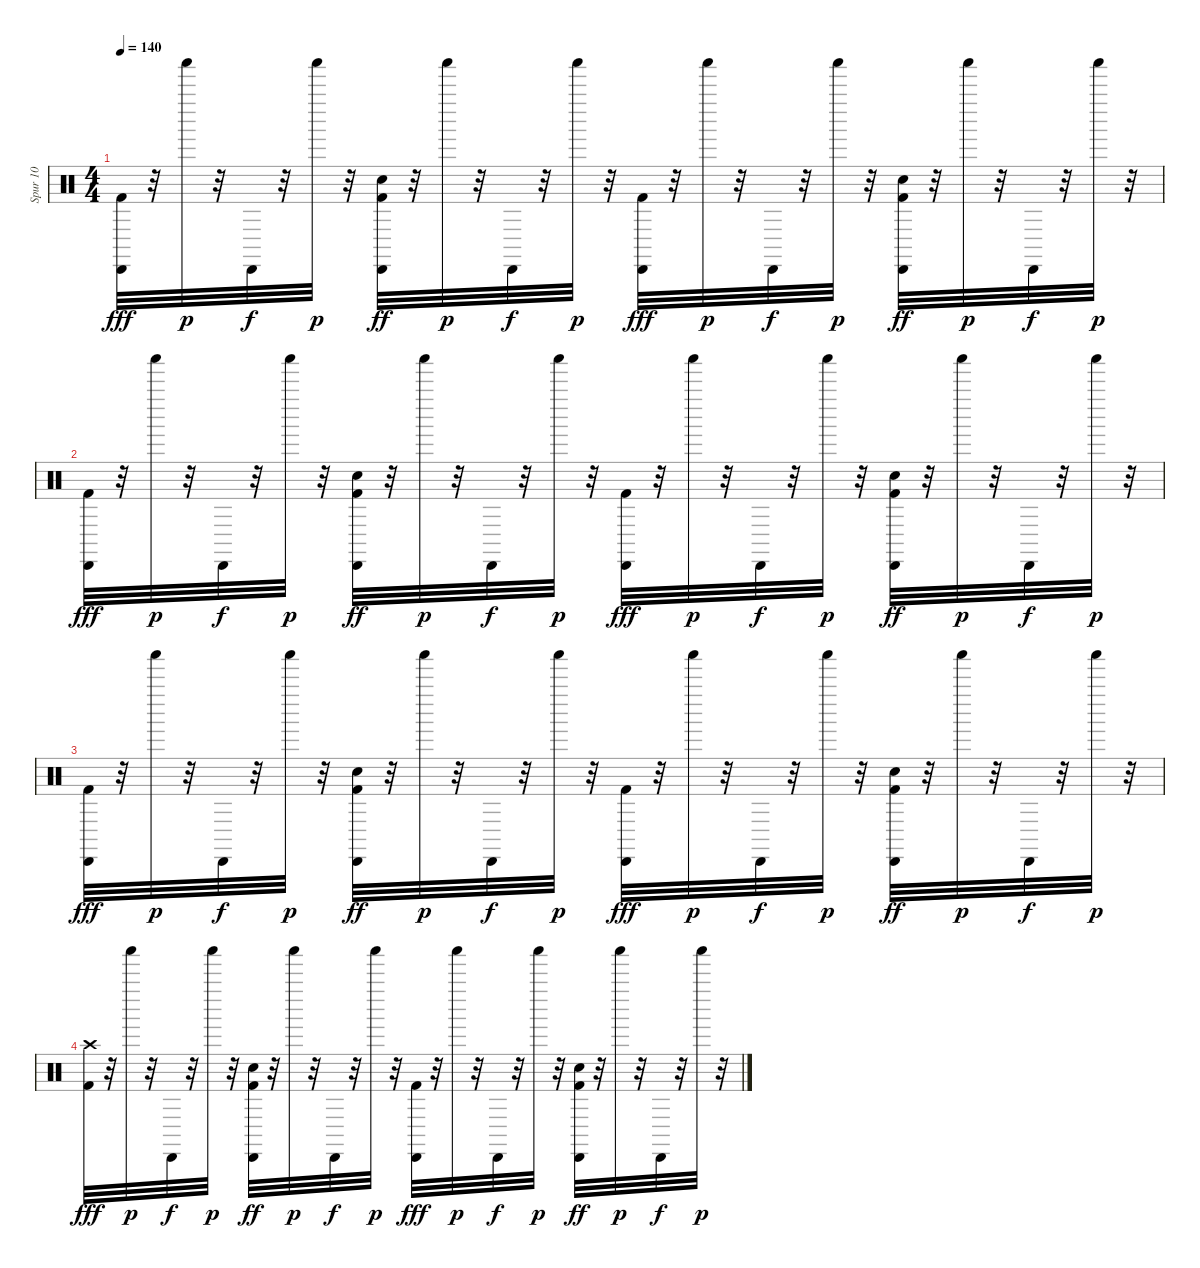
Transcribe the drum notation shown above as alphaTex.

\track ("Spur 10" "Spur 10") {instrument percussion}
\staff {score}
\articulation defaults
\ts (4 4)
\tempo 140
\clef neutral
\ks c
("Cabasa (hit)" "Kick (hit) 2").32{dy fff} r.32 "Shaker (hit)".32{dy p} r.32 "Cabasa (hit)".32{dy f} r.32 "Shaker (hit)".32{dy p} r.32 ("Snare (hit) 2" "Cabasa (hit)" "Kick (hit) 2").32{dy ff} r.32 "Shaker (hit)".32{dy p} r.32 "Cabasa (hit)".32{dy f} r.32 "Shaker (hit)".32{dy p} r.32 ("Cabasa (hit)" "Kick (hit) 2").32{dy fff} r.32 "Shaker (hit)".32{dy p} r.32 "Cabasa (hit)".32{dy f} r.32 "Shaker (hit)".32{dy p} r.32 ("Snare (hit) 2" "Cabasa (hit)" "Kick (hit) 2").32{dy ff} r.32 "Shaker (hit)".32{dy p} r.32 "Cabasa (hit)".32{dy f} r.32 "Shaker (hit)".32{dy p} r.32 |
("Cabasa (hit)" "Kick (hit) 2").32{dy fff} r.32 "Shaker (hit)".32{dy p} r.32 "Cabasa (hit)".32{dy f} r.32 "Shaker (hit)".32{dy p} r.32 ("Snare (hit) 2" "Cabasa (hit)" "Kick (hit) 2").32{dy ff} r.32 "Shaker (hit)".32{dy p} r.32 "Cabasa (hit)".32{dy f} r.32 "Shaker (hit)".32{dy p} r.32 ("Cabasa (hit)" "Kick (hit) 2").32{dy fff} r.32 "Shaker (hit)".32{dy p} r.32 "Cabasa (hit)".32{dy f} r.32 "Shaker (hit)".32{dy p} r.32 ("Snare (hit) 2" "Cabasa (hit)" "Kick (hit) 2").32{dy ff} r.32 "Shaker (hit)".32{dy p} r.32 "Cabasa (hit)".32{dy f} r.32 "Shaker (hit)".32{dy p} r.32 |
("Cabasa (hit)" "Kick (hit) 2").32{dy fff} r.32 "Shaker (hit)".32{dy p} r.32 "Cabasa (hit)".32{dy f} r.32 "Shaker (hit)".32{dy p} r.32 ("Snare (hit) 2" "Cabasa (hit)" "Kick (hit) 2").32{dy ff} r.32 "Shaker (hit)".32{dy p} r.32 "Cabasa (hit)".32{dy f} r.32 "Shaker (hit)".32{dy p} r.32 ("Cabasa (hit)" "Kick (hit) 2").32{dy fff} r.32 "Shaker (hit)".32{dy p} r.32 "Cabasa (hit)".32{dy f} r.32 "Shaker (hit)".32{dy p} r.32 ("Snare (hit) 2" "Cabasa (hit)" "Kick (hit) 2").32{dy ff} r.32 "Shaker (hit)".32{dy p} r.32 "Cabasa (hit)".32{dy f} r.32 "Shaker (hit)".32{dy p} r.32 |
("Crash high (hit)" "Kick (hit) 2").32{dy fff} r.32 "Shaker (hit)".32{dy p} r.32 "Cabasa (hit)".32{dy f} r.32 "Shaker (hit)".32{dy p} r.32 ("Snare (hit) 2" "Cabasa (hit)" "Kick (hit) 2").32{dy ff} r.32 "Shaker (hit)".32{dy p} r.32 "Cabasa (hit)".32{dy f} r.32 "Shaker (hit)".32{dy p} r.32 ("Cabasa (hit)" "Kick (hit) 2").32{dy fff} r.32 "Shaker (hit)".32{dy p} r.32 "Cabasa (hit)".32{dy f} r.32 "Shaker (hit)".32{dy p} r.32 ("Snare (hit) 2" "Cabasa (hit)" "Kick (hit) 2").32{dy ff} r.32 "Shaker (hit)".32{dy p} r.32 "Cabasa (hit)".32{dy f} r.32 "Shaker (hit)".32{dy p} r.32
